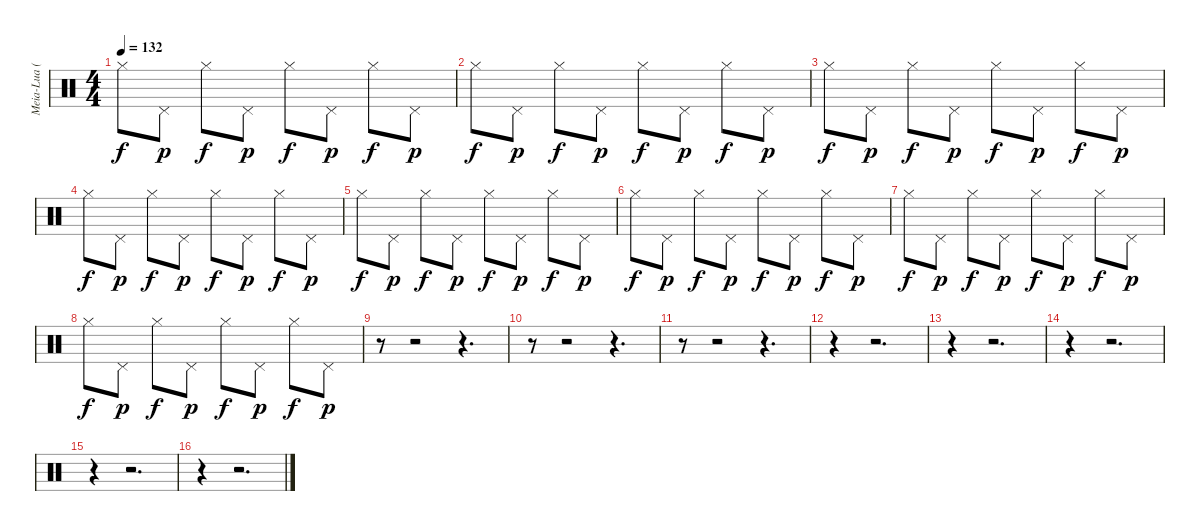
\track ("Meia-Lua (hehe)" "Meia-Lua (") {instrument percussion}
\staff {score}
\articulation defaults
\ts (4 4)
\tempo 132
\clef neutral
\ks c "Hi-Hat (closed)".8{dy f} "Pedal Hi-Hat (hit)".8{dy p} "Hi-Hat (closed)".8{dy f} "Pedal Hi-Hat (hit)".8{dy p} "Hi-Hat (closed)".8{dy f} "Pedal Hi-Hat (hit)".8{dy p} "Hi-Hat (closed)".8{dy f} "Pedal Hi-Hat (hit)".8{dy p}
|
"Hi-Hat (closed)".8{dy f} "Pedal Hi-Hat (hit)".8{dy p} "Hi-Hat (closed)".8{dy f} "Pedal Hi-Hat (hit)".8{dy p} "Hi-Hat (closed)".8{dy f} "Pedal Hi-Hat (hit)".8{dy p} "Hi-Hat (closed)".8{dy f} "Pedal Hi-Hat (hit)".8{dy p} |
"Hi-Hat (closed)".8{dy f} "Pedal Hi-Hat (hit)".8{dy p} "Hi-Hat (closed)".8{dy f} "Pedal Hi-Hat (hit)".8{dy p} "Hi-Hat (closed)".8{dy f} "Pedal Hi-Hat (hit)".8{dy p} "Hi-Hat (closed)".8{dy f} "Pedal Hi-Hat (hit)".8{dy p} |
"Hi-Hat (closed)".8{dy f} "Pedal Hi-Hat (hit)".8{dy p} "Hi-Hat (closed)".8{dy f} "Pedal Hi-Hat (hit)".8{dy p} "Hi-Hat (closed)".8{dy f} "Pedal Hi-Hat (hit)".8{dy p} "Hi-Hat (closed)".8{dy f} "Pedal Hi-Hat (hit)".8{dy p} |
"Hi-Hat (closed)".8{dy f} "Pedal Hi-Hat (hit)".8{dy p} "Hi-Hat (closed)".8{dy f} "Pedal Hi-Hat (hit)".8{dy p} "Hi-Hat (closed)".8{dy f} "Pedal Hi-Hat (hit)".8{dy p} "Hi-Hat (closed)".8{dy f} "Pedal Hi-Hat (hit)".8{dy p} |
"Hi-Hat (closed)".8{dy f} "Pedal Hi-Hat (hit)".8{dy p} "Hi-Hat (closed)".8{dy f} "Pedal Hi-Hat (hit)".8{dy p} "Hi-Hat (closed)".8{dy f} "Pedal Hi-Hat (hit)".8{dy p} "Hi-Hat (closed)".8{dy f} "Pedal Hi-Hat (hit)".8{dy p} |
"Hi-Hat (closed)".8{dy f} "Pedal Hi-Hat (hit)".8{dy p} "Hi-Hat (closed)".8{dy f} "Pedal Hi-Hat (hit)".8{dy p} "Hi-Hat (closed)".8{dy f} "Pedal Hi-Hat (hit)".8{dy p} "Hi-Hat (closed)".8{dy f} "Pedal Hi-Hat (hit)".8{dy p} |
"Hi-Hat (closed)".8{dy f} "Pedal Hi-Hat (hit)".8{dy p} "Hi-Hat (closed)".8{dy f} "Pedal Hi-Hat (hit)".8{dy p} "Hi-Hat (closed)".8{dy f} "Pedal Hi-Hat (hit)".8{dy p} "Hi-Hat (closed)".8{dy f} "Pedal Hi-Hat (hit)".8{dy p} |
r.8 r.2 r.4{d} |
r.8 r.2 r.4{d} |
r.8 r.2 r.4{d} |
r.4 r.2{d} |
r.4 r.2{d} |
r.4 r.2{d} |
r.4 r.2{d} |
r.4 r.2{d}
